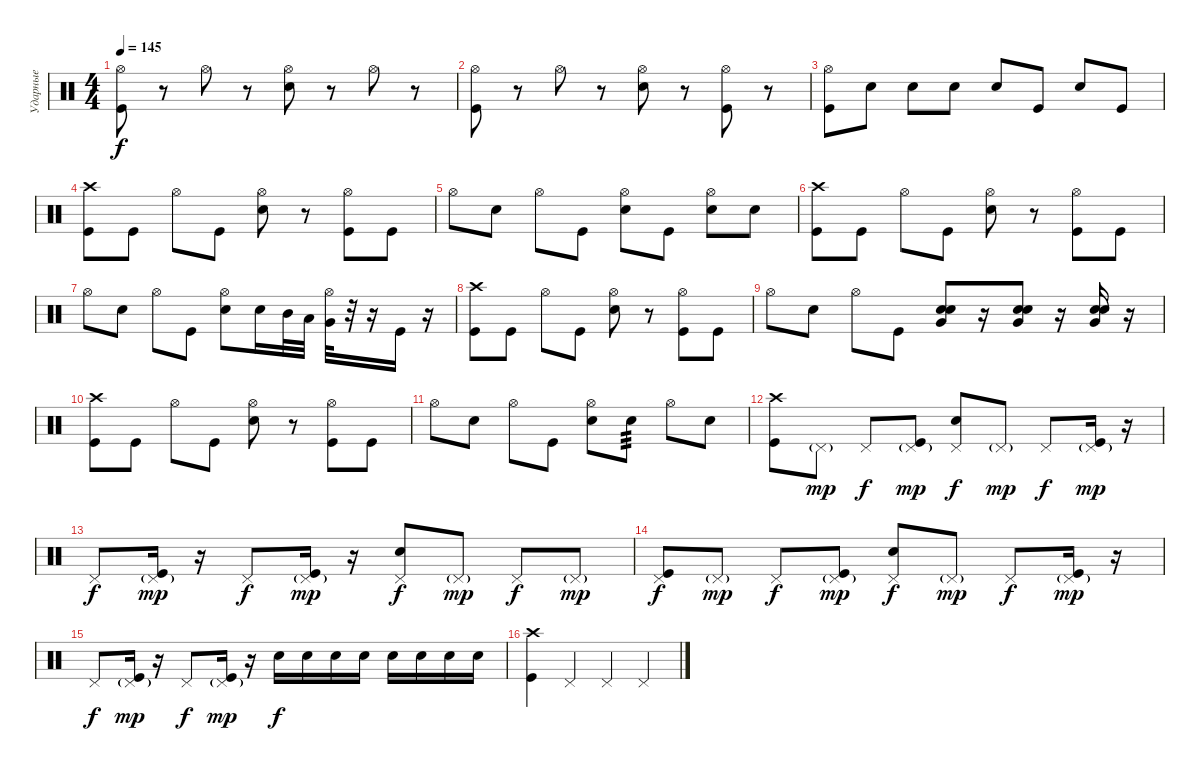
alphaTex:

\track ("Ударные" "Ударные") {instrument percussion}
\staff {score}
\articulation defaults
\ts (4 4)
\tempo 145
\clef neutral
\ks c
("Hi-Hat (open)" "Kick (hit)").8{dy f} r.8 "Hi-Hat (open)".8 r.8 ("Hi-Hat (open)" "Electric Snare (hit)").8 r.8 "Hi-Hat (open)".8 r.8 |
("Hi-Hat (open)" "Kick (hit)").8 r.8 "Hi-Hat (open)".8 r.8 ("Hi-Hat (open)" "Electric Snare (hit)").8 r.8 ("Hi-Hat (open)" "Kick (hit)").8 r.8 |
("Hi-Hat (open)" "Kick (hit)").8 "Electric Snare (hit)".8{volume 13} "Electric Snare (hit)".8 "Electric Snare (hit)".8 "Electric Snare (hit)".8 "Kick (hit)".8 "Electric Snare (hit)".8 "Kick (hit)".8 |
("Crash high (hit)" "Kick (hit)").8 "Kick (hit)".8 "Hi-Hat (open)".8 "Kick (hit)".8 ("Hi-Hat (open)" "Electric Snare (hit)").8 r.8 ("Hi-Hat (open)" "Kick (hit)").8 "Kick (hit)".8 |
"Hi-Hat (open)".8 "Electric Snare (hit)".8 "Hi-Hat (open)".8 "Kick (hit)".8 ("Hi-Hat (open)" "Electric Snare (hit)").8 "Kick (hit)".8 ("Hi-Hat (open)" "Electric Snare (hit)").8 "Electric Snare (hit)".8 |
("Crash high (hit)" "Kick (hit)").8 "Kick (hit)".8 "Hi-Hat (open)".8 "Kick (hit)".8 ("Hi-Hat (open)" "Electric Snare (hit)").8 r.8 ("Hi-Hat (open)" "Kick (hit)").8 "Kick (hit)".8 |
"Hi-Hat (open)".8 "Electric Snare (hit)".8 "Hi-Hat (open)".8 "Kick (hit)".8 ("Hi-Hat (open)" "Electric Snare (hit)").8 "Electric Snare (hit)".16 "Mid Tom (hit)".32 "Low Tom (hit)".32 ("Hi-Hat (open)" "Very Low Tom (hit)").32 r.32 r.16 "Kick (hit)".16 r.16 |
("Crash high (hit)" "Kick (hit)").8 "Kick (hit)".8 "Hi-Hat (open)".8 "Kick (hit)".8 ("Hi-Hat (open)" "Electric Snare (hit)").8 r.8 ("Hi-Hat (open)" "Kick (hit)").8 "Kick (hit)".8 |
"Hi-Hat (open)".8 "Electric Snare (hit)".8 "Hi-Hat (open)".8 "Kick (hit)".8 ("Electric Snare (hit)" "Very Low Tom (hit)" "Electric Snare (hit)").8 r.16 ("Electric Snare (hit)" "Very Low Tom (hit)" "Electric Snare (hit)").8 r.16 ("Electric Snare (hit)" "Very Low Tom (hit)" "Electric Snare (hit)").16 r.16 |
("Crash high (hit)" "Kick (hit)").8 "Kick (hit)".8 "Hi-Hat (open)".8 "Kick (hit)".8 ("Hi-Hat (open)" "Electric Snare (hit)").8 r.8 ("Hi-Hat (open)" "Kick (hit)").8 "Kick (hit)".8 |
"Hi-Hat (open)".8 "Electric Snare (hit)".8 "Hi-Hat (open)".8 "Kick (hit)".8 ("Hi-Hat (open)" "Electric Snare (hit)").8 "Electric Snare (hit)".8{tp 3} "Hi-Hat (open)".8 "Electric Snare (hit)".8 |
("Crash high (hit)" "Kick (hit)").8 "Pedal Hi-Hat (hit)"{g}.8{dy mp} "Pedal Hi-Hat (hit)".8{dy f} ("Pedal Hi-Hat (hit)"{g} "Kick (hit)").8{dy mp} ("Pedal Hi-Hat (hit)" "Electric Snare (hit)").8{dy f} "Pedal Hi-Hat (hit)"{g}.8{dy mp} "Pedal Hi-Hat (hit)".8{dy f} ("Pedal Hi-Hat (hit)"{g} "Kick (hit)").16{dy mp} r.16 |
"Pedal Hi-Hat (hit)".8{dy f} ("Pedal Hi-Hat (hit)"{g} "Kick (hit)").16{dy mp} r.16 "Pedal Hi-Hat (hit)".8{dy f} ("Pedal Hi-Hat (hit)"{g} "Kick (hit)").16{dy mp} r.16 ("Pedal Hi-Hat (hit)" "Electric Snare (hit)").8{dy f} "Pedal Hi-Hat (hit)"{g}.8{dy mp} "Pedal Hi-Hat (hit)".8{dy f} "Pedal Hi-Hat (hit)"{g}.8{dy mp} |
("Pedal Hi-Hat (hit)" "Kick (hit)").8{dy f} "Pedal Hi-Hat (hit)"{g}.8{dy mp} "Pedal Hi-Hat (hit)".8{dy f} ("Pedal Hi-Hat (hit)"{g} "Kick (hit)").8{dy mp} ("Pedal Hi-Hat (hit)" "Electric Snare (hit)").8{dy f} "Pedal Hi-Hat (hit)"{g}.8{dy mp} "Pedal Hi-Hat (hit)".8{dy f} ("Pedal Hi-Hat (hit)"{g} "Kick (hit)").16{dy mp} r.16 |
"Pedal Hi-Hat (hit)".8{dy f} ("Pedal Hi-Hat (hit)"{g} "Kick (hit)").16{dy mp} r.16 "Pedal Hi-Hat (hit)".8{dy f} ("Pedal Hi-Hat (hit)"{g} "Kick (hit)").16{dy mp} r.16 "Electric Snare (hit)".16{dy f} "Electric Snare (hit)".16 "Electric Snare (hit)".16 "Electric Snare (hit)".16 "Electric Snare (hit)".16 "Electric Snare (hit)".16 "Electric Snare (hit)".16 "Electric Snare (hit)".16 |
("Crash high (hit)" "Kick (hit)").4 "Pedal Hi-Hat (hit)".4 "Pedal Hi-Hat (hit)".4 "Pedal Hi-Hat (hit)".4
